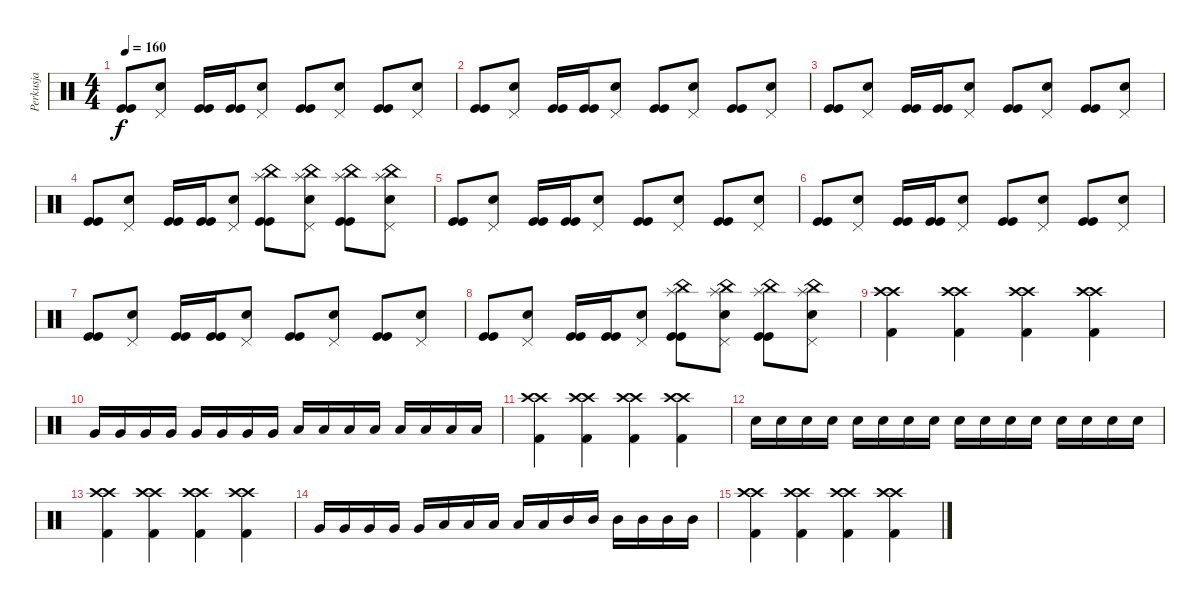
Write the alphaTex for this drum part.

\track ("Perkusja" "Perkusja") {instrument percussion}
\staff {score}
\articulation defaults
\ts (4 4)
\tempo 160
\clef neutral
\ks c
("Kick (hit)" "Kick (hit)").8{dy f} ("Pedal Hi-Hat (hit)" "Snare (hit) 2").8 ("Kick (hit)" "Kick (hit)").16 ("Kick (hit)" "Kick (hit)").16 ("Pedal Hi-Hat (hit)" "Snare (hit) 2").8 ("Kick (hit)" "Kick (hit)").8 ("Pedal Hi-Hat (hit)" "Snare (hit) 2").8 ("Kick (hit)" "Kick (hit)").8 ("Pedal Hi-Hat (hit)" "Snare (hit) 2").8 |
("Kick (hit)" "Kick (hit)").8 ("Pedal Hi-Hat (hit)" "Snare (hit) 2").8 ("Kick (hit)" "Kick (hit)").16 ("Kick (hit)" "Kick (hit)").16 ("Pedal Hi-Hat (hit)" "Snare (hit) 2").8 ("Kick (hit)" "Kick (hit)").8 ("Pedal Hi-Hat (hit)" "Snare (hit) 2").8 ("Kick (hit)" "Kick (hit)").8 ("Pedal Hi-Hat (hit)" "Snare (hit) 2").8 |
("Kick (hit)" "Kick (hit)").8 ("Pedal Hi-Hat (hit)" "Snare (hit) 2").8 ("Kick (hit)" "Kick (hit)").16 ("Kick (hit)" "Kick (hit)").16 ("Pedal Hi-Hat (hit)" "Snare (hit) 2").8 ("Kick (hit)" "Kick (hit)").8 ("Pedal Hi-Hat (hit)" "Snare (hit) 2").8 ("Kick (hit)" "Kick (hit)").8 ("Pedal Hi-Hat (hit)" "Snare (hit) 2").8 |
("Kick (hit)" "Kick (hit)").8 ("Pedal Hi-Hat (hit)" "Snare (hit) 2").8 ("Kick (hit)" "Kick (hit)").16 ("Kick (hit)" "Kick (hit)").16 ("Pedal Hi-Hat (hit)" "Snare (hit) 2").8 ("China (hit)" "Splash (hit)" "Kick (hit)" "Kick (hit)").8 ("China (hit)" "Splash (hit)" "Pedal Hi-Hat (hit)" "Snare (hit) 2").8 ("China (hit)" "Splash (hit)" "Kick (hit)" "Kick (hit)").8 ("China (hit)" "Splash (hit)" "Pedal Hi-Hat (hit)" "Snare (hit) 2").8 |
("Kick (hit)" "Kick (hit)").8 ("Pedal Hi-Hat (hit)" "Snare (hit) 2").8 ("Kick (hit)" "Kick (hit)").16 ("Kick (hit)" "Kick (hit)").16 ("Pedal Hi-Hat (hit)" "Snare (hit) 2").8 ("Kick (hit)" "Kick (hit)").8 ("Pedal Hi-Hat (hit)" "Snare (hit) 2").8 ("Kick (hit)" "Kick (hit)").8 ("Pedal Hi-Hat (hit)" "Snare (hit) 2").8 |
("Kick (hit)" "Kick (hit)").8 ("Pedal Hi-Hat (hit)" "Snare (hit) 2").8 ("Kick (hit)" "Kick (hit)").16 ("Kick (hit)" "Kick (hit)").16 ("Pedal Hi-Hat (hit)" "Snare (hit) 2").8 ("Kick (hit)" "Kick (hit)").8 ("Pedal Hi-Hat (hit)" "Snare (hit) 2").8 ("Kick (hit)" "Kick (hit)").8 ("Pedal Hi-Hat (hit)" "Snare (hit) 2").8 |
("Kick (hit)" "Kick (hit)").8 ("Pedal Hi-Hat (hit)" "Snare (hit) 2").8 ("Kick (hit)" "Kick (hit)").16 ("Kick (hit)" "Kick (hit)").16 ("Pedal Hi-Hat (hit)" "Snare (hit) 2").8 ("Kick (hit)" "Kick (hit)").8 ("Pedal Hi-Hat (hit)" "Snare (hit) 2").8 ("Kick (hit)" "Kick (hit)").8 ("Pedal Hi-Hat (hit)" "Snare (hit) 2").8 |
("Kick (hit)" "Kick (hit)").8 ("Pedal Hi-Hat (hit)" "Snare (hit) 2").8 ("Kick (hit)" "Kick (hit)").16 ("Kick (hit)" "Kick (hit)").16 ("Pedal Hi-Hat (hit)" "Snare (hit) 2").8 ("China (hit)" "Splash (hit)" "Kick (hit)" "Kick (hit)").8 ("China (hit)" "Splash (hit)" "Pedal Hi-Hat (hit)" "Snare (hit) 2").8 ("China (hit)" "Splash (hit)" "Kick (hit)" "Kick (hit)").8 ("China (hit)" "Splash (hit)" "Pedal Hi-Hat (hit)" "Snare (hit) 2").8 |
("Crash high (hit)" "Crash high (hit)" "Kick (hit) 2").4 ("Crash high (hit)" "Crash high (hit)" "Kick (hit) 2").4 ("Crash high (hit)" "Crash high (hit)" "Kick (hit) 2").4 ("Crash high (hit)" "Crash high (hit)" "Kick (hit) 2").4 |
"Very Low Tom (hit)".16 "Very Low Tom (hit)".16 "Very Low Tom (hit)".16 "Very Low Tom (hit)".16 "Very Low Tom (hit)".16 "Very Low Tom (hit)".16 "Very Low Tom (hit)".16 "Very Low Tom (hit)".16 "Low Tom (hit)".16 "Low Tom (hit)".16 "Low Tom (hit)".16 "Low Tom (hit)".16 "Low Tom (hit)".16 "Low Tom (hit)".16 "Low Tom (hit)".16 "Low Tom (hit)".16 |
("Crash high (hit)" "Crash high (hit)" "Kick (hit) 2").4 ("Crash high (hit)" "Crash high (hit)" "Kick (hit) 2").4 ("Crash high (hit)" "Crash high (hit)" "Kick (hit) 2").4 ("Crash high (hit)" "Crash high (hit)" "Kick (hit) 2").4 |
"Snare (hit) 2".16 "Snare (hit) 2".16 "Snare (hit) 2".16 "Snare (hit) 2".16 "Snare (hit) 2".16 "Snare (hit) 2".16 "Snare (hit) 2".16 "Snare (hit) 2".16 "Snare (hit) 2".16 "Snare (hit) 2".16 "Snare (hit) 2".16 "Snare (hit) 2".16 "Snare (hit) 2".16 "Snare (hit) 2".16 "Snare (hit) 2".16 "Snare (hit) 2".16 |
("Crash high (hit)" "Crash high (hit)" "Kick (hit) 2").4 ("Crash high (hit)" "Crash high (hit)" "Kick (hit) 2").4 ("Crash high (hit)" "Crash high (hit)" "Kick (hit) 2").4 ("Crash high (hit)" "Crash high (hit)" "Kick (hit) 2").4 |
"Very Low Tom (hit)".16 "Very Low Tom (hit)".16 "Very Low Tom (hit)".16 "Very Low Tom (hit)".16 "Very Low Tom (hit)".16 "Low Tom (hit)".16 "Low Tom (hit)".16 "Low Tom (hit)".16 "Low Tom (hit)".16 "Low Tom (hit)".16 "Mid Tom (hit)".16 "Mid Tom (hit)".16 "Mid Tom (hit)".16 "Mid Tom (hit)".16 "Mid Tom (hit)".16 "Mid Tom (hit)".16 |
("Crash high (hit)" "Crash high (hit)" "Kick (hit) 2").4 ("Crash high (hit)" "Crash high (hit)" "Kick (hit) 2").4 ("Crash high (hit)" "Crash high (hit)" "Kick (hit) 2").4 ("Crash high (hit)" "Crash high (hit)" "Kick (hit) 2").4
